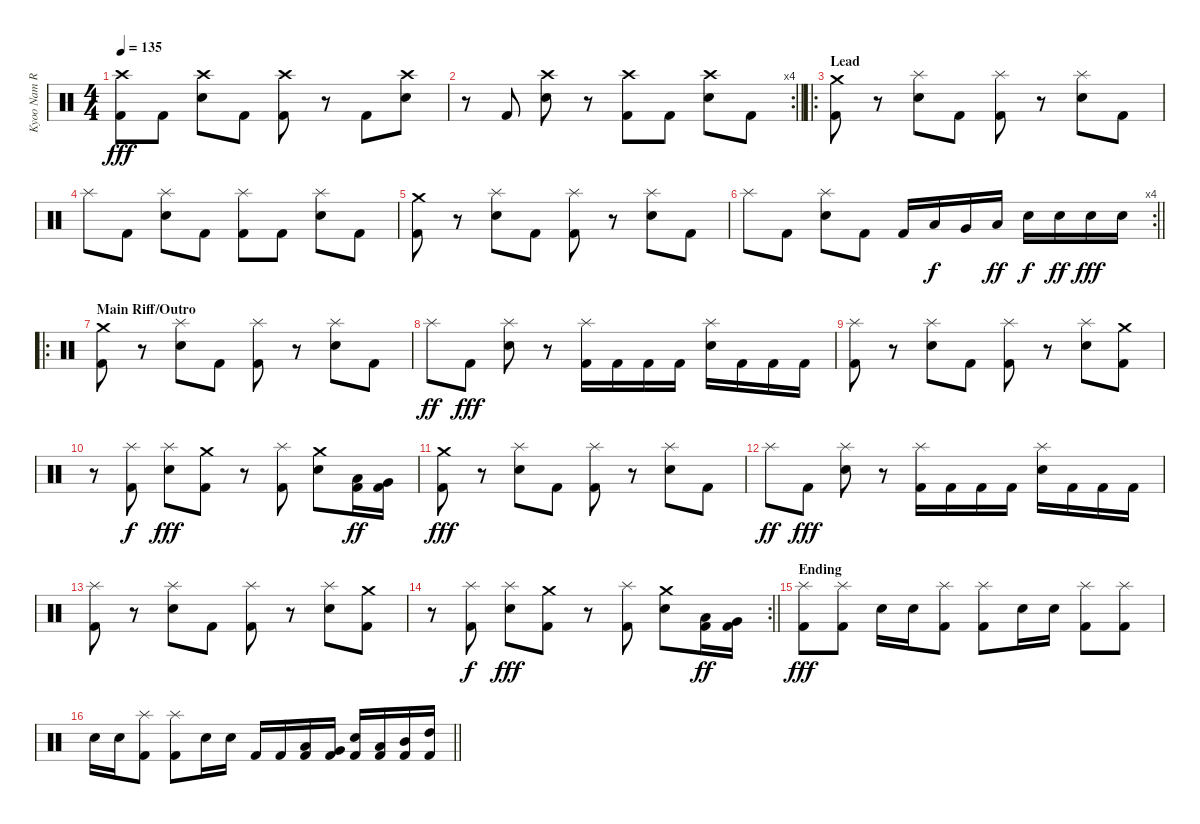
\track ("Kyoo Nam Rossi (Drums)" "Kyoo Nam R") {instrument percussion}
\staff {score}
\articulation defaults
\ts (4 4)
\tempo 135
\clef neutral
\ks c
("Crash high (hit)" "Kick (hit) 2").8{dy fff} "Kick (hit) 2".8 ("Crash high (hit)" "Electric Snare (hit)").8 "Kick (hit) 2".8 ("Crash high (hit)" "Kick (hit) 2").8 r.8 "Kick (hit) 2".8 ("Crash high (hit)" "Electric Snare (hit)").8 |
\rc 4
\barLineRight lightlight
r.8 "Kick (hit) 2".8 ("Crash high (hit)" "Electric Snare (hit)").8 r.8 ("Crash high (hit)" "Kick (hit) 2").8 "Kick (hit) 2".8 ("Crash high (hit)" "Electric Snare (hit)").8 "Kick (hit) 2".8 |
\ro
\section ("" "Lead")
("Crash medium (hit)" "Kick (hit) 2").8 r.8 ("Splash (hit)" "Electric Snare (hit)").8 "Kick (hit) 2".8 ("Splash (hit)" "Kick (hit) 2").8 r.8 ("Splash (hit)" "Electric Snare (hit)").8 "Kick (hit) 2".8 |
"Splash (hit)".8 "Kick (hit) 2".8 ("Splash (hit)" "Electric Snare (hit)").8 "Kick (hit) 2".8 ("Splash (hit)" "Kick (hit) 2").8 "Kick (hit) 2".8 ("Splash (hit)" "Electric Snare (hit)").8 "Kick (hit) 2".8 |
("Crash medium (hit)" "Kick (hit) 2").8 r.8 ("Splash (hit)" "Electric Snare (hit)").8 "Kick (hit) 2".8 ("Splash (hit)" "Kick (hit) 2").8 r.8 ("Splash (hit)" "Electric Snare (hit)").8 "Kick (hit) 2".8 |
\rc 4
\barLineRight lightlight "Splash (hit)".8 "Kick (hit) 2".8
("Splash (hit)" "Electric Snare (hit)").8 "Kick (hit) 2".8 "Kick (hit) 2".16 "Low Tom (hit)".16{dy f} "Very Low Tom (hit)".16 "Low Floor Tom (hit)".16{dy ff} "Electric Snare (hit)".16{dy f} "Electric Snare (hit)".16{dy ff} "Electric Snare (hit)".16{dy fff} "Electric Snare (hit)".16 |
\ro
\section ("" "Main Riff/Outro")
("Crash medium (hit)" "Kick (hit) 2").8 r.8 ("Splash (hit)" "Electric Snare (hit)").8 "Kick (hit) 2".8 ("Splash (hit)" "Kick (hit) 2").8 r.8 ("Splash (hit)" "Electric Snare (hit)").8 "Kick (hit) 2".8 |
"Splash (hit)".8{dy ff} "Kick (hit) 2".8{dy fff} ("Splash (hit)" "Electric Snare (hit)").8 r.8 ("Splash (hit)" "Kick (hit) 2").16 "Kick (hit) 2".16 "Kick (hit) 2".16 "Kick (hit) 2".16 ("Splash (hit)" "Electric Snare (hit)").16 "Kick (hit) 2".16 "Kick (hit) 2".16 "Kick (hit) 2".16 |
("Splash (hit)" "Kick (hit) 2").8 r.8 ("Splash (hit)" "Electric Snare (hit)").8 "Kick (hit) 2".8 ("Splash (hit)" "Kick (hit) 2").8 r.8 ("Splash (hit)" "Electric Snare (hit)").8 ("Crash medium (hit)" "Kick (hit) 2").8 |
r.8 ("Splash (hit)" "Kick (hit) 2").8{dy f} ("Splash (hit)" "Electric Snare (hit)").8{dy fff} ("Crash medium (hit)" "Kick (hit) 2").8 r.8 ("Splash (hit)" "Kick (hit) 2").8 ("Crash medium (hit)" "Electric Snare (hit)").8 ("Low Tom (hit)" "Kick (hit) 2").16{dy ff} ("Very Low Tom (hit)" "Kick (hit) 2").16 |
("Crash medium (hit)" "Kick (hit) 2").8{dy fff} r.8 ("Splash (hit)" "Electric Snare (hit)").8 "Kick (hit) 2".8 ("Splash (hit)" "Kick (hit) 2").8 r.8 ("Splash (hit)" "Electric Snare (hit)").8 "Kick (hit) 2".8 |
"Splash (hit)".8{dy ff} "Kick (hit) 2".8{dy fff} ("Splash (hit)" "Electric Snare (hit)").8 r.8 ("Splash (hit)" "Kick (hit) 2").16 "Kick (hit) 2".16 "Kick (hit) 2".16 "Kick (hit) 2".16 ("Splash (hit)" "Electric Snare (hit)").16 "Kick (hit) 2".16 "Kick (hit) 2".16 "Kick (hit) 2".16 |
("Splash (hit)" "Kick (hit) 2").8 r.8 ("Splash (hit)" "Electric Snare (hit)").8 "Kick (hit) 2".8 ("Splash (hit)" "Kick (hit) 2").8 r.8 ("Splash (hit)" "Electric Snare (hit)").8 ("Crash medium (hit)" "Kick (hit) 2").8 |
\rc 2
\barLineRight lightlight
r.8 ("Splash (hit)" "Kick (hit) 2").8{dy f} ("Splash (hit)" "Electric Snare (hit)").8{dy fff} ("Crash medium (hit)" "Kick (hit) 2").8 r.8 ("Splash (hit)" "Kick (hit) 2").8 ("Crash medium (hit)" "Electric Snare (hit)").8 ("Low Tom (hit)" "Kick (hit) 2").16{dy ff} ("Very Low Tom (hit)" "Kick (hit) 2").16 |
\section ("" "Ending")
("Splash (hit)" "Kick (hit) 2").8{dy fff} ("Splash (hit)" "Kick (hit) 2").8 "Electric Snare (hit)".16 "Electric Snare (hit)".16 ("Splash (hit)" "Kick (hit) 2").8 ("Splash (hit)" "Kick (hit) 2").8 "Electric Snare (hit)".16 "Electric Snare (hit)".16 ("Splash (hit)" "Kick (hit) 2").8 ("Splash (hit)" "Kick (hit) 2").8 |
\barLineRight lightlight "Electric Snare (hit)".16 "Electric Snare (hit)".16
("Splash (hit)" "Kick (hit) 2").8 ("Splash (hit)" "Kick (hit) 2").8 "Electric Snare (hit)".16 "Electric Snare (hit)".16 "Kick (hit) 2".16 "Kick (hit) 2".16 ("Low Tom (hit)" "Kick (hit) 2").16 ("Very Low Tom (hit)" "Kick (hit) 2").16 ("Electric Snare (hit)" "Kick (hit) 2").16 ("Low Tom (hit)" "Kick (hit) 2").16 ("Mid Tom (hit)" "Kick (hit) 2").16 ("High Tom (hit)" "Kick (hit) 2").16
